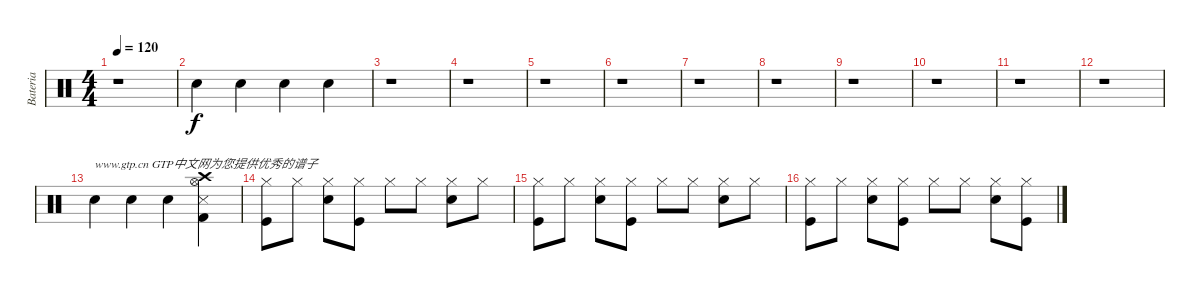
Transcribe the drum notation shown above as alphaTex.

\track ("Bateria" "Bateria") {instrument percussion}
\staff {score}
\articulation defaults
\ts (4 4)
\tempo 120
\clef neutral
\ks c
r.1{dy f} |
"Electric Snare (hit)".4 "Electric Snare (hit)".4 "Electric Snare (hit)".4 "Electric Snare (hit)".4 |
r.1 |
r.1 |
r.1 |
r.1 |
r.1 |
r.1 |
r.1 |
r.1 |
r.1 |
r.1 |
"Electric Snare (hit)".4{txt "www.gtp.cn GTP中文网为您提供优秀的谱子"} "Electric Snare (hit)".4 "Electric Snare (hit)".4 ("Crash high (hit)" "Hi-Hat (open)" "Snare (side stick) 3" "Kick (hit) 2").4 |
("Hi-Hat (closed)" "Kick (hit)").8 "Hi-Hat (closed)".8 ("Hi-Hat (closed)" "Electric Snare (hit)").8 ("Hi-Hat (closed)" "Kick (hit)").8 "Hi-Hat (closed)".8 "Hi-Hat (closed)".8 ("Hi-Hat (closed)" "Electric Snare (hit)").8 "Hi-Hat (closed)".8 |
("Hi-Hat (closed)" "Kick (hit)").8 "Hi-Hat (closed)".8 ("Hi-Hat (closed)" "Electric Snare (hit)").8 ("Hi-Hat (closed)" "Kick (hit)").8 "Hi-Hat (closed)".8 "Hi-Hat (closed)".8 ("Hi-Hat (closed)" "Electric Snare (hit)").8 "Hi-Hat (closed)".8 |
("Hi-Hat (closed)" "Kick (hit)").8 "Hi-Hat (closed)".8 ("Hi-Hat (closed)" "Electric Snare (hit)").8 ("Hi-Hat (closed)" "Kick (hit)").8 "Hi-Hat (closed)".8 "Hi-Hat (closed)".8 ("Hi-Hat (closed)" "Electric Snare (hit)").8 ("Hi-Hat (closed)" "Kick (hit)").8
